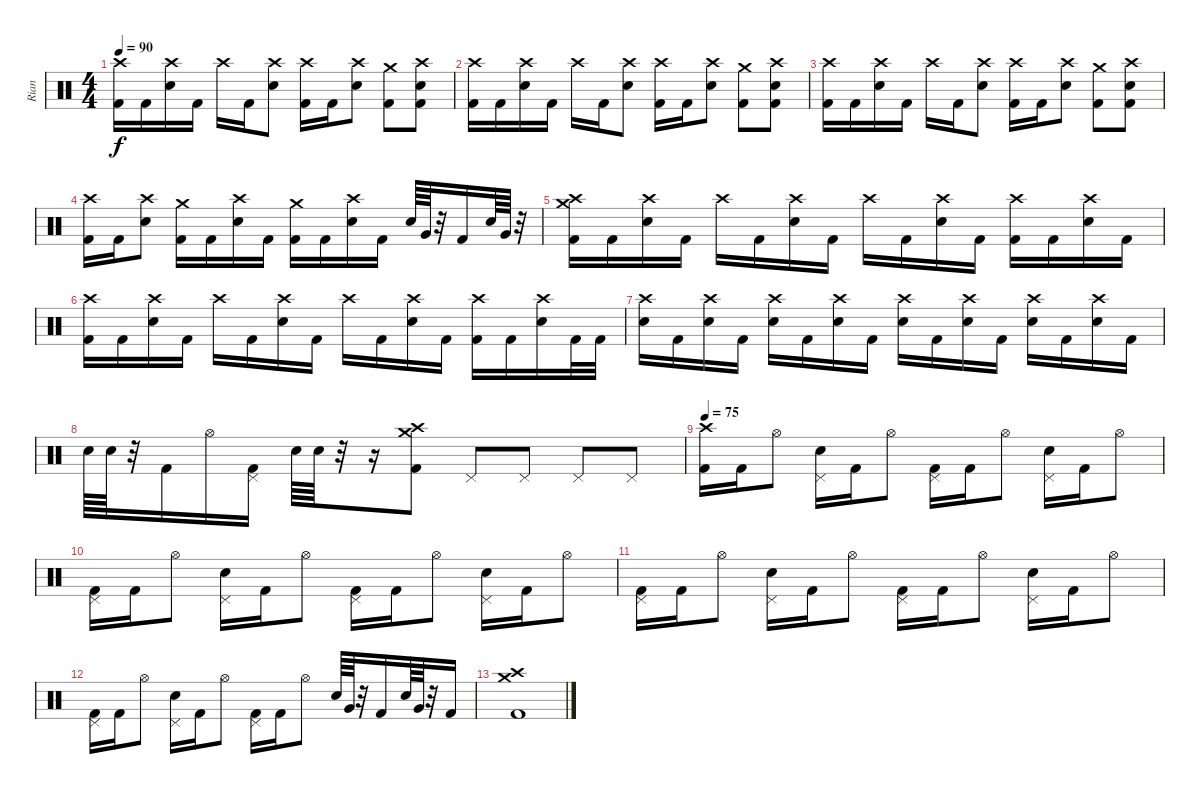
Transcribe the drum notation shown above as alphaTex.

\track ("Rian" "Rian") {instrument percussion bank 34}
\staff {score}
\articulation defaults
\ts (4 4)
\tempo 90
\clef neutral
\ks c
("Crash high (hit)" "Kick (hit) 2").16{dy f} "Kick (hit) 2".16 ("Crash high (hit)" "Electric Snare (hit)").16 "Kick (hit) 2".16 "Crash high (hit)".16 "Kick (hit) 2".16 ("Crash high (hit)" "Electric Snare (hit)").8 ("Crash high (hit)" "Kick (hit) 2").16 "Kick (hit) 2".16 ("Crash high (hit)" "Electric Snare (hit)").8 ("Crash medium (hit)" "Kick (hit) 2").8 ("Crash high (hit)" "Electric Snare (hit)" "Kick (hit) 2").8 |
("Crash high (hit)" "Kick (hit) 2").16 "Kick (hit) 2".16 ("Crash high (hit)" "Electric Snare (hit)").16 "Kick (hit) 2".16 "Crash high (hit)".16 "Kick (hit) 2".16 ("Crash high (hit)" "Electric Snare (hit)").8 ("Crash high (hit)" "Kick (hit) 2").16 "Kick (hit) 2".16 ("Crash high (hit)" "Electric Snare (hit)").8 ("Crash medium (hit)" "Kick (hit) 2").8 ("Crash high (hit)" "Electric Snare (hit)" "Kick (hit) 2").8 |
("Crash high (hit)" "Kick (hit) 2").16 "Kick (hit) 2".16 ("Crash high (hit)" "Electric Snare (hit)").16 "Kick (hit) 2".16 "Crash high (hit)".16 "Kick (hit) 2".16 ("Crash high (hit)" "Electric Snare (hit)").8 ("Crash high (hit)" "Kick (hit) 2").16 "Kick (hit) 2".16 ("Crash high (hit)" "Electric Snare (hit)").8 ("Crash medium (hit)" "Kick (hit) 2").8 ("Crash high (hit)" "Electric Snare (hit)" "Kick (hit) 2").8 |
("Crash high (hit)" "Kick (hit) 2").16 "Kick (hit) 2".16 ("Crash high (hit)" "Electric Snare (hit)").8 ("Crash medium (hit)" "Kick (hit) 2").16 "Kick (hit) 2".16 ("Crash high (hit)" "Electric Snare (hit)").16 "Kick (hit) 2".16 ("Crash medium (hit)" "Kick (hit) 2").16 "Kick (hit) 2".16 ("Crash high (hit)" "Electric Snare (hit)").16 "Kick (hit) 2".16 "Electric Snare (hit)".64 "Very Low Tom (hit)".64 r.32 "Kick (hit) 2".16 "Electric Snare (hit)".64 "Very Low Tom (hit)".64 r.32 |
("Crash medium (hit)" "Crash high (hit)" "Kick (hit) 2").16 "Kick (hit) 2".16 ("Crash high (hit)" "Electric Snare (hit)").16 "Kick (hit) 2".16 "Crash high (hit)".16 "Kick (hit) 2".16 ("Crash high (hit)" "Electric Snare (hit)").16 "Kick (hit) 2".16 "Crash high (hit)".16 "Kick (hit) 2".16 ("Crash high (hit)" "Electric Snare (hit)").16 "Kick (hit) 2".16 ("Crash high (hit)" "Kick (hit) 2").16 "Kick (hit) 2".16 ("Crash high (hit)" "Electric Snare (hit)").16 "Kick (hit) 2".16 |
("Crash high (hit)" "Kick (hit) 2").16 "Kick (hit) 2".16 ("Crash high (hit)" "Electric Snare (hit)").16 "Kick (hit) 2".16 "Crash high (hit)".16 "Kick (hit) 2".16 ("Crash high (hit)" "Electric Snare (hit)").16 "Kick (hit) 2".16 "Crash high (hit)".16 "Kick (hit) 2".16 ("Crash high (hit)" "Electric Snare (hit)").16 "Kick (hit) 2".16 ("Crash high (hit)" "Kick (hit) 2").16 "Kick (hit) 2".16 ("Crash high (hit)" "Electric Snare (hit)").16 "Kick (hit) 2".32 "Kick (hit) 2".32 |
("Crash high (hit)" "Electric Snare (hit)").16 "Kick (hit) 2".16 ("Crash high (hit)" "Electric Snare (hit)").16 "Kick (hit) 2".16 ("Crash high (hit)" "Electric Snare (hit)").16 "Kick (hit) 2".16 ("Crash high (hit)" "Electric Snare (hit)").16 "Kick (hit) 2".16 ("Crash high (hit)" "Electric Snare (hit)").16 "Kick (hit) 2".16 ("Crash high (hit)" "Electric Snare (hit)").16 "Kick (hit) 2".16 ("Crash high (hit)" "Electric Snare (hit)").16 "Kick (hit) 2".16 ("Crash high (hit)" "Electric Snare (hit)").16 "Kick (hit) 2".16 |
"Electric Snare (hit)".64 "Electric Snare (hit)".64 r.32 "Kick (hit) 2".16 "Hi-Hat (open)".16 ("Pedal Hi-Hat (hit)" "Kick (hit) 2").16 "Electric Snare (hit)".64 "Electric Snare (hit)".64 r.32 r.16 ("Crash medium (hit)" "Crash high (hit)" "Kick (hit) 2").8 "Pedal Hi-Hat (hit)".8 "Pedal Hi-Hat (hit)".8 "Pedal Hi-Hat (hit)".8 "Pedal Hi-Hat (hit)".8 |
\tempo 75
("Crash high (hit)" "Kick (hit) 2").16 "Kick (hit) 2".16 "Hi-Hat (open)".8 ("Pedal Hi-Hat (hit)" "Electric Snare (hit)").16 "Kick (hit) 2".16 "Hi-Hat (open)".8 ("Pedal Hi-Hat (hit)" "Kick (hit) 2").16 "Kick (hit) 2".16 "Hi-Hat (open)".8 ("Pedal Hi-Hat (hit)" "Electric Snare (hit)").16 "Kick (hit) 2".16 "Hi-Hat (open)".8 |
("Pedal Hi-Hat (hit)" "Kick (hit) 2").16 "Kick (hit) 2".16 "Hi-Hat (open)".8 ("Pedal Hi-Hat (hit)" "Electric Snare (hit)").16 "Kick (hit) 2".16 "Hi-Hat (open)".8 ("Pedal Hi-Hat (hit)" "Kick (hit) 2").16 "Kick (hit) 2".16 "Hi-Hat (open)".8 ("Pedal Hi-Hat (hit)" "Electric Snare (hit)").16 "Kick (hit) 2".16 "Hi-Hat (open)".8 |
("Pedal Hi-Hat (hit)" "Kick (hit) 2").16 "Kick (hit) 2".16 "Hi-Hat (open)".8 ("Pedal Hi-Hat (hit)" "Electric Snare (hit)").16 "Kick (hit) 2".16 "Hi-Hat (open)".8 ("Pedal Hi-Hat (hit)" "Kick (hit) 2").16 "Kick (hit) 2".16 "Hi-Hat (open)".8 ("Pedal Hi-Hat (hit)" "Electric Snare (hit)").16 "Kick (hit) 2".16 "Hi-Hat (open)".8 |
("Pedal Hi-Hat (hit)" "Kick (hit) 2").16 "Kick (hit) 2".16 "Hi-Hat (open)".8 ("Pedal Hi-Hat (hit)" "Electric Snare (hit)").16 "Kick (hit) 2".16 "Hi-Hat (open)".8 ("Pedal Hi-Hat (hit)" "Kick (hit) 2").16 "Kick (hit) 2".16 "Hi-Hat (open)".8 "Electric Snare (hit)".64 "Very Low Tom (hit)".64 r.32 "Kick (hit) 2".16 "Electric Snare (hit)".64 "Very Low Tom (hit)".64 r.32 "Kick (hit) 2".16 |
("Crash medium (hit)" "Crash high (hit)" "Kick (hit) 2").1
